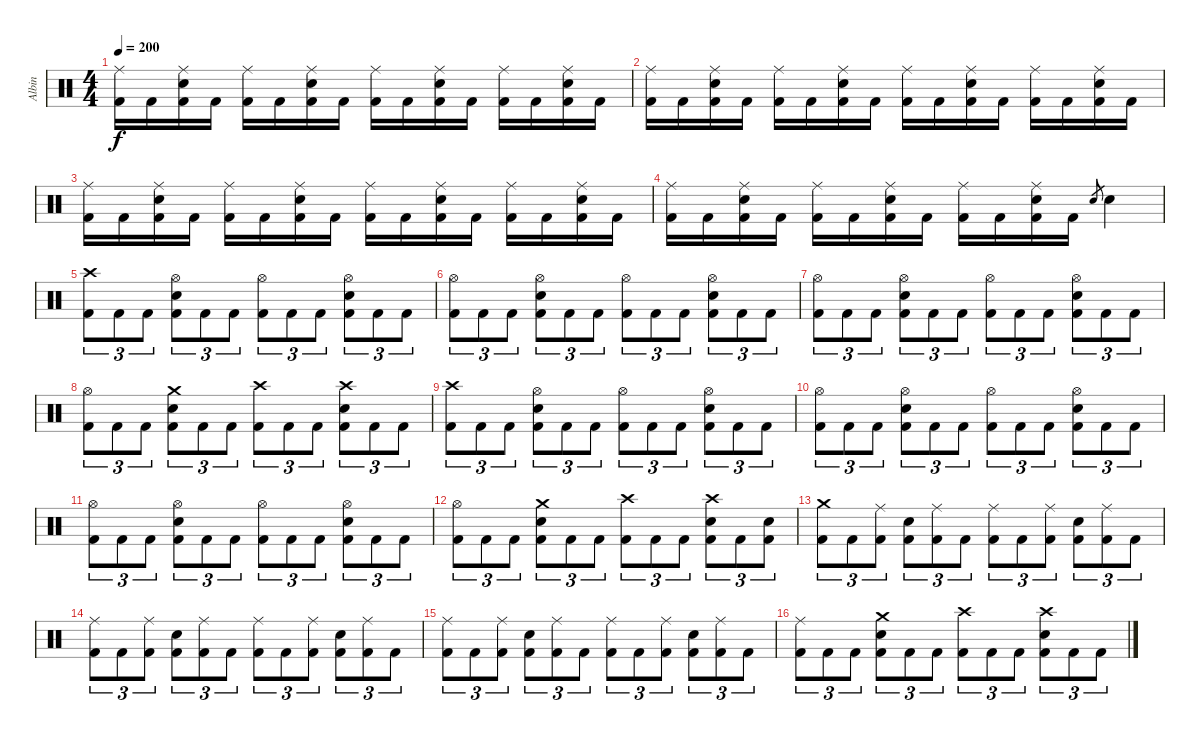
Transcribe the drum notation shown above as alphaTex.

\track ("Albin" "Albin") {instrument percussion}
\staff {score}
\articulation defaults
\ts (4 4)
\tempo 200
\clef neutral
\ks c
("Ride (middle)" "Kick (hit) 2").16{dy f} "Kick (hit) 2".16 ("Ride (middle)" "Snare (hit) 2" "Kick (hit) 2").16 "Kick (hit) 2".16 ("Ride (middle)" "Kick (hit) 2").16 "Kick (hit) 2".16 ("Ride (middle)" "Snare (hit) 2" "Kick (hit) 2").16 "Kick (hit) 2".16 ("Ride (middle)" "Kick (hit) 2").16 "Kick (hit) 2".16 ("Ride (middle)" "Snare (hit) 2" "Kick (hit) 2").16 "Kick (hit) 2".16 ("Ride (middle)" "Kick (hit) 2").16 "Kick (hit) 2".16 ("Ride (middle)" "Snare (hit) 2" "Kick (hit) 2").16 "Kick (hit) 2".16 |
("Ride (middle)" "Kick (hit) 2").16 "Kick (hit) 2".16 ("Ride (middle)" "Snare (hit) 2" "Kick (hit) 2").16 "Kick (hit) 2".16 ("Ride (middle)" "Kick (hit) 2").16 "Kick (hit) 2".16 ("Ride (middle)" "Snare (hit) 2" "Kick (hit) 2").16 "Kick (hit) 2".16 ("Ride (middle)" "Kick (hit) 2").16 "Kick (hit) 2".16 ("Ride (middle)" "Snare (hit) 2" "Kick (hit) 2").16 "Kick (hit) 2".16 ("Ride (middle)" "Kick (hit) 2").16 "Kick (hit) 2".16 ("Ride (middle)" "Snare (hit) 2" "Kick (hit) 2").16 "Kick (hit) 2".16 |
("Ride (middle)" "Kick (hit) 2").16 "Kick (hit) 2".16 ("Ride (middle)" "Snare (hit) 2" "Kick (hit) 2").16 "Kick (hit) 2".16 ("Ride (middle)" "Kick (hit) 2").16 "Kick (hit) 2".16 ("Ride (middle)" "Snare (hit) 2" "Kick (hit) 2").16 "Kick (hit) 2".16 ("Ride (middle)" "Kick (hit) 2").16 "Kick (hit) 2".16 ("Ride (middle)" "Snare (hit) 2" "Kick (hit) 2").16 "Kick (hit) 2".16 ("Ride (middle)" "Kick (hit) 2").16 "Kick (hit) 2".16 ("Ride (middle)" "Snare (hit) 2" "Kick (hit) 2").16 "Kick (hit) 2".16 |
("Ride (middle)" "Kick (hit) 2").16 "Kick (hit) 2".16 ("Ride (middle)" "Snare (hit) 2" "Kick (hit) 2").16 "Kick (hit) 2".16 ("Ride (middle)" "Kick (hit) 2").16 "Kick (hit) 2".16 ("Ride (middle)" "Snare (hit) 2" "Kick (hit) 2").16 "Kick (hit) 2".16 ("Ride (middle)" "Kick (hit) 2").16 "Kick (hit) 2".16 ("Ride (middle)" "Snare (hit) 2" "Kick (hit) 2").16 "Kick (hit) 2".16 "Snare (hit) 2".8{gr} "Snare (hit) 2".4 |
\section ("" "")
("Crash high (hit)" "Kick (hit) 2").8{tu (3 2)} "Kick (hit) 2".8{tu (3 2)} "Kick (hit) 2".8{tu (3 2)} ("Hi-Hat (open)" "Snare (hit) 2" "Kick (hit) 2").8{tu (3 2)} "Kick (hit) 2".8{tu (3 2)} "Kick (hit) 2".8{tu (3 2)} ("Hi-Hat (open)" "Kick (hit) 2").8{tu (3 2)} "Kick (hit) 2".8{tu (3 2)} "Kick (hit) 2".8{tu (3 2)} ("Hi-Hat (open)" "Snare (hit) 2" "Kick (hit) 2").8{tu (3 2)} "Kick (hit) 2".8{tu (3 2)} "Kick (hit) 2".8{tu (3 2)} |
("Hi-Hat (open)" "Kick (hit) 2").8{tu (3 2)} "Kick (hit) 2".8{tu (3 2)} "Kick (hit) 2".8{tu (3 2)} ("Hi-Hat (open)" "Snare (hit) 2" "Kick (hit) 2").8{tu (3 2)} "Kick (hit) 2".8{tu (3 2)} "Kick (hit) 2".8{tu (3 2)} ("Hi-Hat (open)" "Kick (hit) 2").8{tu (3 2)} "Kick (hit) 2".8{tu (3 2)} "Kick (hit) 2".8{tu (3 2)} ("Hi-Hat (open)" "Snare (hit) 2" "Kick (hit) 2").8{tu (3 2)} "Kick (hit) 2".8{tu (3 2)} "Kick (hit) 2".8{tu (3 2)} |
("Hi-Hat (open)" "Kick (hit) 2").8{tu (3 2)} "Kick (hit) 2".8{tu (3 2)} "Kick (hit) 2".8{tu (3 2)} ("Hi-Hat (open)" "Snare (hit) 2" "Kick (hit) 2").8{tu (3 2)} "Kick (hit) 2".8{tu (3 2)} "Kick (hit) 2".8{tu (3 2)} ("Hi-Hat (open)" "Kick (hit) 2").8{tu (3 2)} "Kick (hit) 2".8{tu (3 2)} "Kick (hit) 2".8{tu (3 2)} ("Hi-Hat (open)" "Snare (hit) 2" "Kick (hit) 2").8{tu (3 2)} "Kick (hit) 2".8{tu (3 2)} "Kick (hit) 2".8{tu (3 2)} |
("Hi-Hat (open)" "Kick (hit) 2").8{tu (3 2)} "Kick (hit) 2".8{tu (3 2)} "Kick (hit) 2".8{tu (3 2)} ("Crash medium (hit)" "Snare (hit) 2" "Kick (hit) 2").8{tu (3 2)} "Kick (hit) 2".8{tu (3 2)} "Kick (hit) 2".8{tu (3 2)} ("Crash high (hit)" "Kick (hit) 2").8{tu (3 2)} "Kick (hit) 2".8{tu (3 2)} "Kick (hit) 2".8{tu (3 2)} ("Crash high (hit)" "Snare (hit) 2" "Kick (hit) 2").8{tu (3 2)} "Kick (hit) 2".8{tu (3 2)} "Kick (hit) 2".8{tu (3 2)} |
("Crash high (hit)" "Kick (hit) 2").8{tu (3 2)} "Kick (hit) 2".8{tu (3 2)} "Kick (hit) 2".8{tu (3 2)} ("Hi-Hat (open)" "Snare (hit) 2" "Kick (hit) 2").8{tu (3 2)} "Kick (hit) 2".8{tu (3 2)} "Kick (hit) 2".8{tu (3 2)} ("Hi-Hat (open)" "Kick (hit) 2").8{tu (3 2)} "Kick (hit) 2".8{tu (3 2)} "Kick (hit) 2".8{tu (3 2)} ("Hi-Hat (open)" "Snare (hit) 2" "Kick (hit) 2").8{tu (3 2)} "Kick (hit) 2".8{tu (3 2)} "Kick (hit) 2".8{tu (3 2)} |
("Hi-Hat (open)" "Kick (hit) 2").8{tu (3 2)} "Kick (hit) 2".8{tu (3 2)} "Kick (hit) 2".8{tu (3 2)} ("Hi-Hat (open)" "Snare (hit) 2" "Kick (hit) 2").8{tu (3 2)} "Kick (hit) 2".8{tu (3 2)} "Kick (hit) 2".8{tu (3 2)} ("Hi-Hat (open)" "Kick (hit) 2").8{tu (3 2)} "Kick (hit) 2".8{tu (3 2)} "Kick (hit) 2".8{tu (3 2)} ("Hi-Hat (open)" "Snare (hit) 2" "Kick (hit) 2").8{tu (3 2)} "Kick (hit) 2".8{tu (3 2)} "Kick (hit) 2".8{tu (3 2)} |
("Hi-Hat (open)" "Kick (hit) 2").8{tu (3 2)} "Kick (hit) 2".8{tu (3 2)} "Kick (hit) 2".8{tu (3 2)} ("Hi-Hat (open)" "Snare (hit) 2" "Kick (hit) 2").8{tu (3 2)} "Kick (hit) 2".8{tu (3 2)} "Kick (hit) 2".8{tu (3 2)} ("Hi-Hat (open)" "Kick (hit) 2").8{tu (3 2)} "Kick (hit) 2".8{tu (3 2)} "Kick (hit) 2".8{tu (3 2)} ("Hi-Hat (open)" "Snare (hit) 2" "Kick (hit) 2").8{tu (3 2)} "Kick (hit) 2".8{tu (3 2)} "Kick (hit) 2".8{tu (3 2)} |
("Hi-Hat (open)" "Kick (hit) 2").8{tu (3 2)} "Kick (hit) 2".8{tu (3 2)} "Kick (hit) 2".8{tu (3 2)} ("Crash medium (hit)" "Snare (hit) 2" "Kick (hit) 2").8{tu (3 2)} "Kick (hit) 2".8{tu (3 2)} "Kick (hit) 2".8{tu (3 2)} ("Crash high (hit)" "Kick (hit) 2").8{tu (3 2)} "Kick (hit) 2".8{tu (3 2)} "Kick (hit) 2".8{tu (3 2)} ("Crash high (hit)" "Snare (hit) 2" "Kick (hit) 2").8{tu (3 2)} "Kick (hit) 2".8{tu (3 2)} ("Snare (hit) 2" "Kick (hit) 2").8{tu (3 2)} |
("Crash medium (hit)" "Kick (hit) 2").8{tu (3 2)} "Kick (hit) 2".8{tu (3 2)} ("Ride (middle)" "Kick (hit) 2").8{tu (3 2)} ("Snare (hit) 2" "Kick (hit) 2").8{tu (3 2)} ("Ride (middle)" "Kick (hit) 2").8{tu (3 2)} "Kick (hit) 2".8{tu (3 2)} ("Ride (middle)" "Kick (hit) 2").8{tu (3 2)} "Kick (hit) 2".8{tu (3 2)} ("Ride (middle)" "Kick (hit) 2").8{tu (3 2)} ("Snare (hit) 2" "Kick (hit) 2").8{tu (3 2)} ("Ride (middle)" "Kick (hit) 2").8{tu (3 2)} "Kick (hit) 2".8{tu (3 2)} |
("Ride (middle)" "Kick (hit) 2").8{tu (3 2)} "Kick (hit) 2".8{tu (3 2)} ("Ride (middle)" "Kick (hit) 2").8{tu (3 2)} ("Snare (hit) 2" "Kick (hit) 2").8{tu (3 2)} ("Ride (middle)" "Kick (hit) 2").8{tu (3 2)} "Kick (hit) 2".8{tu (3 2)} ("Ride (middle)" "Kick (hit) 2").8{tu (3 2)} "Kick (hit) 2".8{tu (3 2)} ("Ride (middle)" "Kick (hit) 2").8{tu (3 2)} ("Snare (hit) 2" "Kick (hit) 2").8{tu (3 2)} ("Ride (middle)" "Kick (hit) 2").8{tu (3 2)} "Kick (hit) 2".8{tu (3 2)} |
("Ride (middle)" "Kick (hit) 2").8{tu (3 2)} "Kick (hit) 2".8{tu (3 2)} ("Ride (middle)" "Kick (hit) 2").8{tu (3 2)} ("Snare (hit) 2" "Kick (hit) 2").8{tu (3 2)} ("Ride (middle)" "Kick (hit) 2").8{tu (3 2)} "Kick (hit) 2".8{tu (3 2)} ("Ride (middle)" "Kick (hit) 2").8{tu (3 2)} "Kick (hit) 2".8{tu (3 2)} ("Ride (middle)" "Kick (hit) 2").8{tu (3 2)} ("Snare (hit) 2" "Kick (hit) 2").8{tu (3 2)} ("Ride (middle)" "Kick (hit) 2").8{tu (3 2)} "Kick (hit) 2".8{tu (3 2)} |
("Ride (middle)" "Kick (hit) 2").8{tu (3 2)} "Kick (hit) 2".8{tu (3 2)} "Kick (hit) 2".8{tu (3 2)} ("Crash medium (hit)" "Snare (hit) 2" "Kick (hit) 2").8{tu (3 2)} "Kick (hit) 2".8{tu (3 2)} "Kick (hit) 2".8{tu (3 2)} ("Crash high (hit)" "Kick (hit) 2").8{tu (3 2)} "Kick (hit) 2".8{tu (3 2)} "Kick (hit) 2".8{tu (3 2)} ("Crash high (hit)" "Snare (hit) 2" "Kick (hit) 2").8{tu (3 2)} "Kick (hit) 2".8{tu (3 2)} "Kick (hit) 2".8{tu (3 2)}
